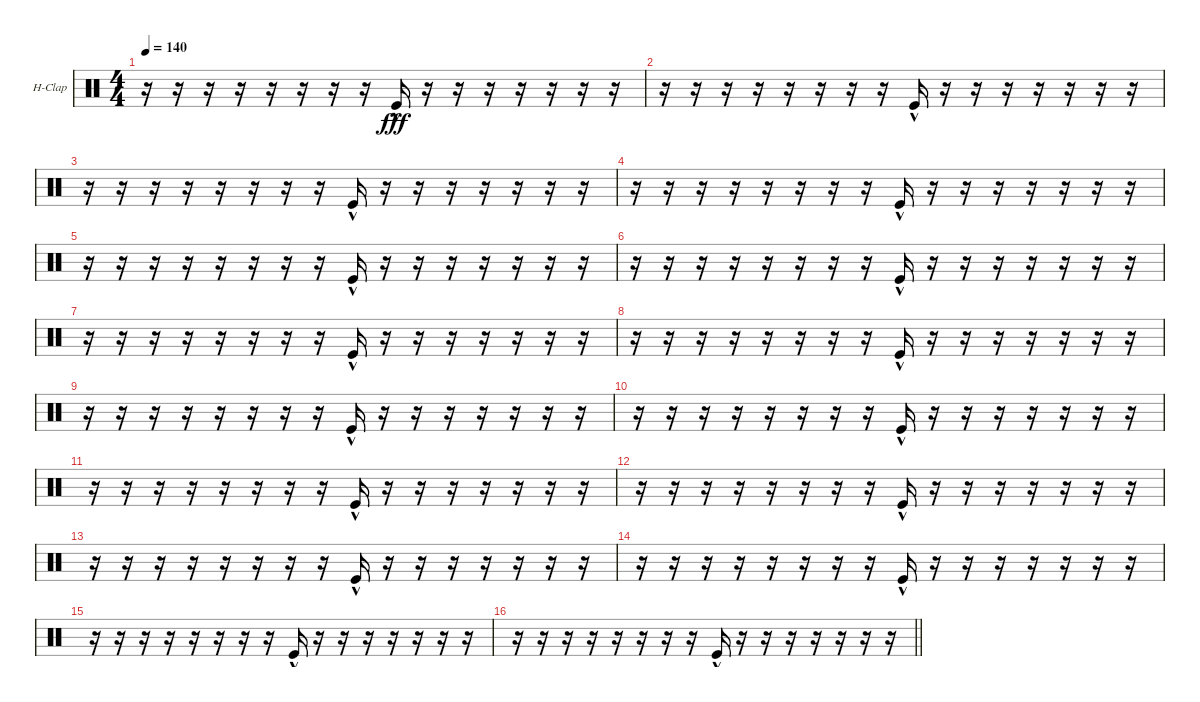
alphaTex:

\bracketExtendMode groupsimilarinstruments
\firstSystemTrackNameOrientation horizontal
\otherSystemsTrackNameOrientation horizontal
\track ("Hand Clap" "H-Clap") {instrument percussion}
\staff {score}
\articulation defaults
\ts (4 4)
\tempo 140
\clef neutral
\ks c
r.16{dy fff} r.16 r.16 r.16 r.16 r.16 r.16 r.16 "Kick (hit)"{hac}.16 r.16 r.16 r.16 r.16 r.16 r.16 r.16 |
r.16 r.16 r.16 r.16 r.16 r.16 r.16 r.16 "Kick (hit)"{hac}.16 r.16 r.16 r.16 r.16 r.16 r.16 r.16 |
r.16 r.16 r.16 r.16 r.16 r.16 r.16 r.16 "Kick (hit)"{hac}.16 r.16 r.16 r.16 r.16 r.16 r.16 r.16 |
r.16 r.16 r.16 r.16 r.16 r.16 r.16 r.16 "Kick (hit)"{hac}.16 r.16 r.16 r.16 r.16 r.16 r.16 r.16 |
r.16 r.16 r.16 r.16 r.16 r.16 r.16 r.16 "Kick (hit)"{hac}.16 r.16 r.16 r.16 r.16 r.16 r.16 r.16 |
r.16 r.16 r.16 r.16 r.16 r.16 r.16 r.16 "Kick (hit)"{hac}.16 r.16 r.16 r.16 r.16 r.16 r.16 r.16 |
r.16 r.16 r.16 r.16 r.16 r.16 r.16 r.16 "Kick (hit)"{hac}.16 r.16 r.16 r.16 r.16 r.16 r.16 r.16 |
r.16 r.16 r.16 r.16 r.16 r.16 r.16 r.16 "Kick (hit)"{hac}.16 r.16 r.16 r.16 r.16 r.16 r.16 r.16 |
r.16 r.16 r.16 r.16 r.16 r.16 r.16 r.16 "Kick (hit)"{hac}.16 r.16 r.16 r.16 r.16 r.16 r.16 r.16 |
r.16 r.16 r.16 r.16 r.16 r.16 r.16 r.16 "Kick (hit)"{hac}.16 r.16 r.16 r.16 r.16 r.16 r.16 r.16 |
r.16 r.16 r.16 r.16 r.16 r.16 r.16 r.16 "Kick (hit)"{hac}.16 r.16 r.16 r.16 r.16 r.16 r.16 r.16 |
r.16 r.16 r.16 r.16 r.16 r.16 r.16 r.16 "Kick (hit)"{hac}.16 r.16 r.16 r.16 r.16 r.16 r.16 r.16 |
r.16 r.16 r.16 r.16 r.16 r.16 r.16 r.16 "Kick (hit)"{hac}.16 r.16 r.16 r.16 r.16 r.16 r.16 r.16 |
r.16 r.16 r.16 r.16 r.16 r.16 r.16 r.16 "Kick (hit)"{hac}.16 r.16 r.16 r.16 r.16 r.16 r.16 r.16 |
r.16 r.16 r.16 r.16 r.16 r.16 r.16 r.16 "Kick (hit)"{hac}.16 r.16 r.16 r.16 r.16 r.16 r.16 r.16 |
\barLineRight lightlight
r.16 r.16 r.16 r.16 r.16 r.16 r.16 r.16 "Kick (hit)"{hac}.16 r.16 r.16 r.16 r.16 r.16 r.16 r.16
